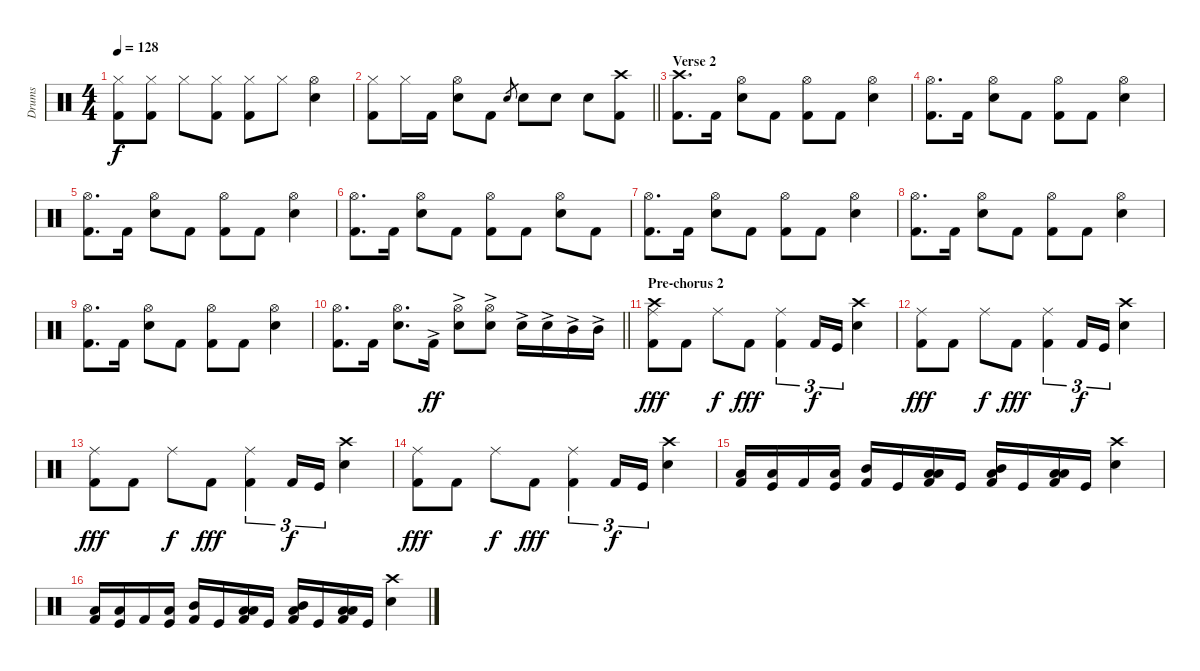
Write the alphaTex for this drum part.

\track ("Drums" "Drums") {instrument percussion}
\staff {score}
\articulation defaults
\ts (4 4)
\tempo 128
\clef neutral
\ks c
("Hi-Hat (closed)" "Kick (hit) 2").8{dy f} ("Hi-Hat (closed)" "Kick (hit) 2").8 "Hi-Hat (closed)".8 ("Hi-Hat (closed)" "Kick (hit) 2").8 ("Hi-Hat (closed)" "Kick (hit) 2").8 "Hi-Hat (closed)".8 ("Hi-Hat (open)" "Electric Snare (hit)").4 |
\barLineRight lightlight
("Hi-Hat (closed)" "Kick (hit) 2").8 "Hi-Hat (closed)".16 "Kick (hit) 2".16 ("Hi-Hat (open)" "Electric Snare (hit)").8 "Kick (hit) 2".8 "Electric Snare (hit)".8{gr} "Electric Snare (hit)".8 "Electric Snare (hit)".8 "Electric Snare (hit)".8 ("Crash high (hit)" "Kick (hit) 2").8 |
\section ("" "Verse 2")
("Crash high (hit)" "Kick (hit) 2").8{d} "Kick (hit) 2".16 ("Hi-Hat (open)" "Electric Snare (hit)").8 "Kick (hit) 2".8 ("Hi-Hat (open)" "Kick (hit) 2").8 "Kick (hit) 2".8 ("Hi-Hat (open)" "Electric Snare (hit)").4 |
("Hi-Hat (open)" "Kick (hit) 2").8{d} "Kick (hit) 2".16 ("Hi-Hat (open)" "Electric Snare (hit)").8 "Kick (hit) 2".8 ("Hi-Hat (open)" "Kick (hit) 2").8 "Kick (hit) 2".8 ("Hi-Hat (open)" "Electric Snare (hit)").4 |
("Hi-Hat (open)" "Kick (hit) 2").8{d} "Kick (hit) 2".16 ("Hi-Hat (open)" "Electric Snare (hit)").8 "Kick (hit) 2".8 ("Hi-Hat (open)" "Kick (hit) 2").8 "Kick (hit) 2".8 ("Hi-Hat (open)" "Electric Snare (hit)").4 |
("Hi-Hat (open)" "Kick (hit) 2").8{d} "Kick (hit) 2".16 ("Hi-Hat (open)" "Electric Snare (hit)").8 "Kick (hit) 2".8 ("Hi-Hat (open)" "Kick (hit) 2").8 "Kick (hit) 2".8 ("Hi-Hat (open)" "Electric Snare (hit)").8 "Kick (hit) 2".8 |
("Hi-Hat (open)" "Kick (hit) 2").8{d} "Kick (hit) 2".16 ("Hi-Hat (open)" "Electric Snare (hit)").8 "Kick (hit) 2".8 ("Hi-Hat (open)" "Kick (hit) 2").8 "Kick (hit) 2".8 ("Hi-Hat (open)" "Electric Snare (hit)").4 |
("Hi-Hat (open)" "Kick (hit) 2").8{d} "Kick (hit) 2".16 ("Hi-Hat (open)" "Electric Snare (hit)").8 "Kick (hit) 2".8 ("Hi-Hat (open)" "Kick (hit) 2").8 "Kick (hit) 2".8 ("Hi-Hat (open)" "Electric Snare (hit)").4 |
("Hi-Hat (open)" "Kick (hit) 2").8{d} "Kick (hit) 2".16 ("Hi-Hat (open)" "Electric Snare (hit)").8 "Kick (hit) 2".8 ("Hi-Hat (open)" "Kick (hit) 2").8 "Kick (hit) 2".8 ("Hi-Hat (open)" "Electric Snare (hit)").4 |
\barLineRight lightlight
("Hi-Hat (open)" "Kick (hit) 2").8{d} "Kick (hit) 2".16 ("Hi-Hat (open)" "Electric Snare (hit)").8{d} "Kick (hit) 2"{ac}.16{dy ff} ("Hi-Hat (open)"{ac} "Electric Snare (hit)"{ac}).8 ("Hi-Hat (open)"{ac} "Electric Snare (hit)"{ac}).8 "Electric Snare (hit)"{ac}.16 "Electric Snare (hit)"{ac}.16 "Mid Tom (hit)"{ac}.16 "Mid Tom (hit)"{ac}.16 |
\section ("" "Pre-chorus 2")
("Crash high (hit)" "Ride (middle)" "Kick (hit) 2").8{dy fff} "Kick (hit) 2".8 "Ride (middle)".8{dy f} "Kick (hit) 2".8{dy fff} ("Ride (middle)" "Kick (hit) 2").4{tu (3 2)} "Kick (hit) 2".16{tu (3 2) dy f} "Kick (hit)".16{tu (3 2)} ("Crash high (hit)" "Electric Snare (hit)").4 |
("Ride (middle)" "Kick (hit) 2").8{dy fff} "Kick (hit) 2".8 "Ride (middle)".8{dy f} "Kick (hit) 2".8{dy fff} ("Ride (middle)" "Kick (hit) 2").4{tu (3 2)} "Kick (hit) 2".16{tu (3 2) dy f} "Kick (hit)".16{tu (3 2)} ("Crash high (hit)" "Electric Snare (hit)").4 |
("Ride (middle)" "Kick (hit) 2").8{dy fff} "Kick (hit) 2".8 "Ride (middle)".8{dy f} "Kick (hit) 2".8{dy fff} ("Ride (middle)" "Kick (hit) 2").4{tu (3 2)} "Kick (hit) 2".16{tu (3 2) dy f} "Kick (hit)".16{tu (3 2)} ("Crash high (hit)" "Electric Snare (hit)").4 |
("Ride (middle)" "Kick (hit) 2").8{dy fff} "Kick (hit) 2".8 "Ride (middle)".8{dy f} "Kick (hit) 2".8{dy fff} ("Ride (middle)" "Kick (hit) 2").4{tu (3 2)} "Kick (hit) 2".16{tu (3 2) dy f} "Kick (hit)".16{tu (3 2)} ("Crash high (hit)" "Electric Snare (hit)").4 |
("Low Floor Tom (hit)" "Kick (hit) 2").16 ("Low Tom (hit)" "Kick (hit)").16 "Kick (hit) 2".16 ("Low Floor Tom (hit)" "Kick (hit)").16 ("Mid Tom (hit)" "Kick (hit) 2").16 "Kick (hit)".16 ("Low Tom (hit)" "Low Floor Tom (hit)" "Kick (hit) 2").16 "Kick (hit)".16 ("Mid Tom (hit)" "Low Tom (hit)" "Kick (hit) 2").16 "Kick (hit)".16 ("Low Tom (hit)" "Low Floor Tom (hit)" "Kick (hit) 2").16 "Kick (hit)".16 ("Crash high (hit)" "Electric Snare (hit)").4 |
("Low Floor Tom (hit)" "Kick (hit) 2").16 ("Low Tom (hit)" "Kick (hit)").16 "Kick (hit) 2".16 ("Low Floor Tom (hit)" "Kick (hit)").16 ("Mid Tom (hit)" "Kick (hit) 2").16 "Kick (hit)".16 ("Low Tom (hit)" "Low Floor Tom (hit)" "Kick (hit) 2").16 "Kick (hit)".16 ("Mid Tom (hit)" "Low Tom (hit)" "Kick (hit) 2").16 "Kick (hit)".16 ("Low Tom (hit)" "Low Floor Tom (hit)" "Kick (hit) 2").16 "Kick (hit)".16 ("Crash high (hit)" "Electric Snare (hit)").4
